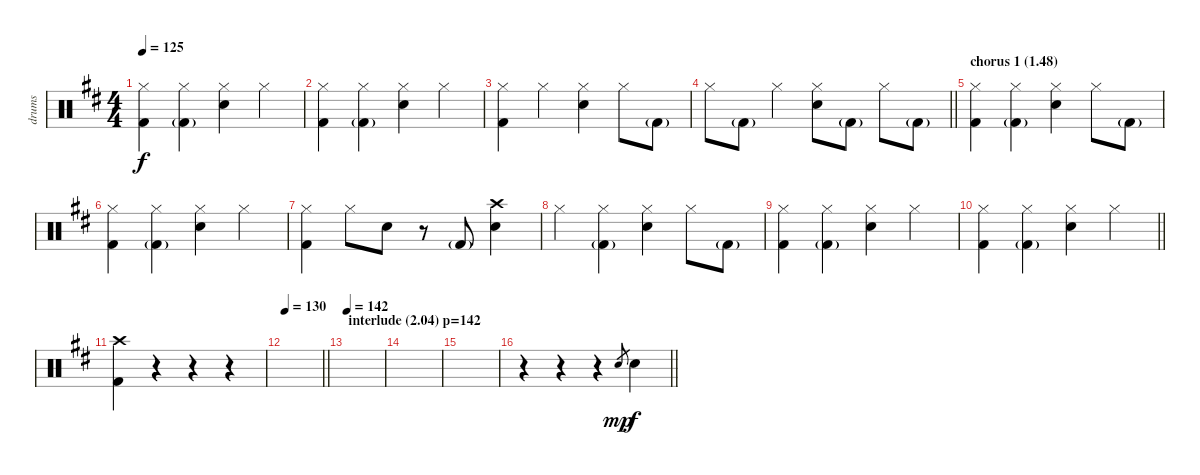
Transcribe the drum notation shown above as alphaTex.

\track ("drums" "drums") {instrument percussion}
\staff {score}
\articulation defaults
\ts (4 4)
\tempo 125
\clef neutral
\ks d
("Hi-Hat (closed)" "Kick (hit) 2").4{dy f} ("Hi-Hat (closed)" "Kick (hit) 2"{g}).4 ("Hi-Hat (closed)" "Electric Snare (hit)").4 "Hi-Hat (closed)".4 |
("Hi-Hat (closed)" "Kick (hit) 2").4 ("Hi-Hat (closed)" "Kick (hit) 2"{g}).4 ("Hi-Hat (closed)" "Electric Snare (hit)").4 "Hi-Hat (closed)".4 |
("Hi-Hat (closed)" "Kick (hit) 2").4 "Hi-Hat (closed)".4 ("Hi-Hat (closed)" "Electric Snare (hit)").4 "Hi-Hat (closed)".8 "Kick (hit) 2"{g}.8 |
\barLineRight lightlight "Hi-Hat (closed)".8 "Kick (hit) 2"{g}.8 "Hi-Hat (closed)".4
("Hi-Hat (closed)" "Electric Snare (hit)").8 "Kick (hit) 2"{g}.8 "Hi-Hat (closed)".8 "Kick (hit) 2"{g}.8 |
\section ("" "chorus 1 (1.48)")
("Hi-Hat (closed)" "Kick (hit) 2").4 ("Hi-Hat (closed)" "Kick (hit) 2"{g}).4 ("Hi-Hat (closed)" "Electric Snare (hit)").4 "Hi-Hat (closed)".8 "Kick (hit) 2"{g}.8 |
("Hi-Hat (closed)" "Kick (hit) 2").4 ("Hi-Hat (closed)" "Kick (hit) 2"{g}).4 ("Hi-Hat (closed)" "Electric Snare (hit)").4 "Hi-Hat (closed)".4 |
("Hi-Hat (closed)" "Kick (hit) 2").4 "Hi-Hat (closed)".8 "Electric Snare (hit)".8 r.8 "Kick (hit) 2"{g}.8 ("Crash high (hit)" "Electric Snare (hit)").4 |
"Hi-Hat (closed)".4 ("Hi-Hat (closed)" "Kick (hit) 2"{g}).4 ("Hi-Hat (closed)" "Electric Snare (hit)").4 "Hi-Hat (closed)".8 "Kick (hit) 2"{g}.8 |
("Hi-Hat (closed)" "Kick (hit) 2").4 ("Hi-Hat (closed)" "Kick (hit) 2"{g}).4 ("Hi-Hat (closed)" "Electric Snare (hit)").4 "Hi-Hat (closed)".4 |
\barLineRight lightlight
("Hi-Hat (closed)" "Kick (hit) 2").4 ("Hi-Hat (closed)" "Kick (hit) 2"{g}).4 ("Hi-Hat (closed)" "Electric Snare (hit)").4 "Hi-Hat (closed)".4 |
("Crash high (hit)" "Kick (hit) 2").4 r.4 r.4 r.4 |
\tempo 130
\barLineRight lightlight
|
\section ("" "interlude (2.04) p=142")
\tempo 142
|
|
|
\barLineRight lightlight
r.4 r.4 r.4 "Electric Snare (hit)".8{gr dy mp} "Electric Snare (hit)".4{dy f}
